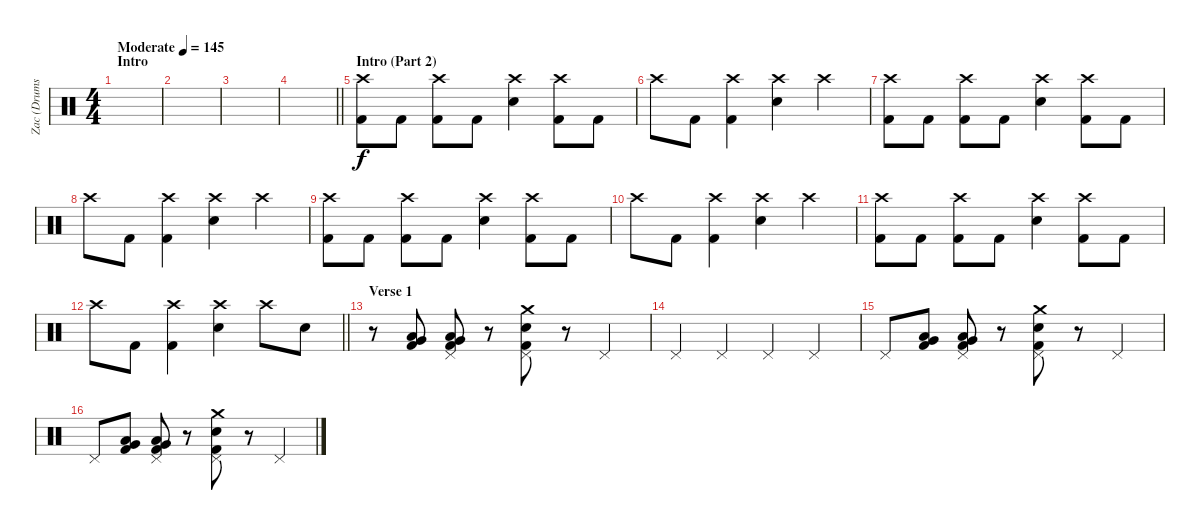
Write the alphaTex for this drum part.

\track ("Zac (Drums)" "Zac (Drums") {instrument percussion}
\staff {score}
\articulation defaults
\ts (4 4)
\section ("" "Intro")
\tempo (145 "Moderate")
\clef neutral
\ks c
|
|
|
\barLineRight lightlight
|
\section ("" "Intro (Part 2)")
("Crash high (hit)" "Kick (hit) 2").8 "Kick (hit) 2".8 ("Crash high (hit)" "Kick (hit) 2").8 "Kick (hit) 2".8 ("Crash high (hit)" "Electric Snare (hit)").4 ("Crash high (hit)" "Kick (hit) 2").8 "Kick (hit) 2".8 |
"Crash high (hit)".8 "Kick (hit) 2".8 ("Crash high (hit)" "Kick (hit) 2").4 ("Crash high (hit)" "Electric Snare (hit)").4 "Crash high (hit)".4 |
("Crash high (hit)" "Kick (hit) 2").8 "Kick (hit) 2".8 ("Crash high (hit)" "Kick (hit) 2").8 "Kick (hit) 2".8 ("Crash high (hit)" "Electric Snare (hit)").4 ("Crash high (hit)" "Kick (hit) 2").8 "Kick (hit) 2".8 |
"Crash high (hit)".8 "Kick (hit) 2".8 ("Crash high (hit)" "Kick (hit) 2").4 ("Crash high (hit)" "Electric Snare (hit)").4 "Crash high (hit)".4 |
("Crash high (hit)" "Kick (hit) 2").8 "Kick (hit) 2".8 ("Crash high (hit)" "Kick (hit) 2").8 "Kick (hit) 2".8 ("Crash high (hit)" "Electric Snare (hit)").4 ("Crash high (hit)" "Kick (hit) 2").8 "Kick (hit) 2".8 |
"Crash high (hit)".8 "Kick (hit) 2".8 ("Crash high (hit)" "Kick (hit) 2").4 ("Crash high (hit)" "Electric Snare (hit)").4 "Crash high (hit)".4 |
("Crash high (hit)" "Kick (hit) 2").8 "Kick (hit) 2".8 ("Crash high (hit)" "Kick (hit) 2").8 "Kick (hit) 2".8 ("Crash high (hit)" "Electric Snare (hit)").4 ("Crash high (hit)" "Kick (hit) 2").8 "Kick (hit) 2".8 |
\barLineRight lightlight "Crash high (hit)".8 "Kick (hit) 2".8
("Crash high (hit)" "Kick (hit) 2").4 ("Crash high (hit)" "Electric Snare (hit)").4 "Crash high (hit)".8 "Electric Snare (hit)".8 |
\section ("" "Verse 1")
r.8 ("Very Low Tom (hit)" "Low Tom (hit)" "Kick (hit) 2").8 ("Pedal Hi-Hat (hit)" "Very Low Tom (hit)" "Low Tom (hit)" "Kick (hit) 2").8 r.8 ("Crash medium (hit)" "Pedal Hi-Hat (hit)" "Electric Snare (hit)" "Kick (hit) 2").8 r.8 "Pedal Hi-Hat (hit)".4 |
"Pedal Hi-Hat (hit)".4 "Pedal Hi-Hat (hit)".4 "Pedal Hi-Hat (hit)".4 "Pedal Hi-Hat (hit)".4 |
"Pedal Hi-Hat (hit)".8 ("Very Low Tom (hit)" "Low Tom (hit)" "Kick (hit) 2").8 ("Pedal Hi-Hat (hit)" "Very Low Tom (hit)" "Low Tom (hit)" "Kick (hit) 2").8 r.8 ("Crash medium (hit)" "Pedal Hi-Hat (hit)" "Electric Snare (hit)" "Kick (hit) 2").8 r.8 "Pedal Hi-Hat (hit)".4 |
"Pedal Hi-Hat (hit)".8 ("Very Low Tom (hit)" "Low Tom (hit)" "Kick (hit) 2").8 ("Pedal Hi-Hat (hit)" "Very Low Tom (hit)" "Low Tom (hit)" "Kick (hit) 2").8 r.8 ("Crash medium (hit)" "Pedal Hi-Hat (hit)" "Electric Snare (hit)" "Kick (hit) 2").8 r.8 "Pedal Hi-Hat (hit)".4
